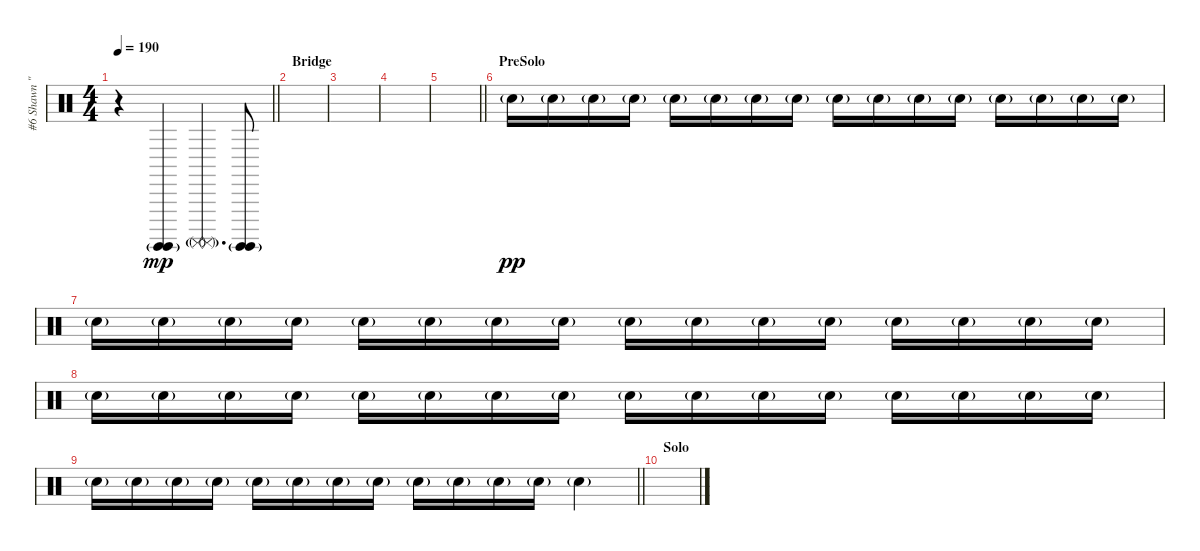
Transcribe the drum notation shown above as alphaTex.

\track ("#6 Shawn \"Clown\" Crahan" "#6 Shawn \"") {instrument percussion}
\staff {score}
\articulation defaults
\ts (4 4)
\tempo 190
\clef neutral
\barLineRight lightlight
\ks c
r.4{dy mp} ("Surdo (hit)"{g} "Surdo (hit)"{g}).4 ("Surdo (mute)"{g} "Surdo (mute)"{g}).4{d} ("Surdo (hit)"{g} "Surdo (hit)"{g}).8 |
\section ("" "Bridge")
|
|
|
\barLineRight lightlight
|
\section ("" "PreSolo")
"Electric Snare (hit)"{g}.16{dy pp} "Electric Snare (hit)"{g}.16 "Electric Snare (hit)"{g}.16 "Electric Snare (hit)"{g}.16 "Electric Snare (hit)"{g}.16 "Electric Snare (hit)"{g}.16 "Electric Snare (hit)"{g}.16 "Electric Snare (hit)"{g}.16 "Electric Snare (hit)"{g}.16 "Electric Snare (hit)"{g}.16 "Electric Snare (hit)"{g}.16 "Electric Snare (hit)"{g}.16 "Electric Snare (hit)"{g}.16 "Electric Snare (hit)"{g}.16 "Electric Snare (hit)"{g}.16 "Electric Snare (hit)"{g}.16 |
"Electric Snare (hit)"{g}.16 "Electric Snare (hit)"{g}.16 "Electric Snare (hit)"{g}.16 "Electric Snare (hit)"{g}.16 "Electric Snare (hit)"{g}.16 "Electric Snare (hit)"{g}.16 "Electric Snare (hit)"{g}.16 "Electric Snare (hit)"{g}.16 "Electric Snare (hit)"{g}.16 "Electric Snare (hit)"{g}.16 "Electric Snare (hit)"{g}.16 "Electric Snare (hit)"{g}.16 "Electric Snare (hit)"{g}.16 "Electric Snare (hit)"{g}.16 "Electric Snare (hit)"{g}.16 "Electric Snare (hit)"{g}.16 |
"Electric Snare (hit)"{g}.16 "Electric Snare (hit)"{g}.16 "Electric Snare (hit)"{g}.16 "Electric Snare (hit)"{g}.16 "Electric Snare (hit)"{g}.16 "Electric Snare (hit)"{g}.16 "Electric Snare (hit)"{g}.16 "Electric Snare (hit)"{g}.16 "Electric Snare (hit)"{g}.16 "Electric Snare (hit)"{g}.16 "Electric Snare (hit)"{g}.16 "Electric Snare (hit)"{g}.16 "Electric Snare (hit)"{g}.16 "Electric Snare (hit)"{g}.16 "Electric Snare (hit)"{g}.16 "Electric Snare (hit)"{g}.16 |
\barLineRight lightlight "Electric Snare (hit)"{g}.16 "Electric Snare (hit)"{g}.16 "Electric Snare (hit)"{g}.16 "Electric Snare (hit)"{g}.16 "Electric Snare (hit)"{g}.16 "Electric Snare (hit)"{g}.16 "Electric Snare (hit)"{g}.16 "Electric Snare (hit)"{g}.16 "Electric Snare (hit)"{g}.16 "Electric Snare (hit)"{g}.16 "Electric Snare (hit)"{g}.16 "Electric Snare (hit)"{g}.16 "Electric Snare (hit)"{g}.4
|
\section ("" "Solo")
